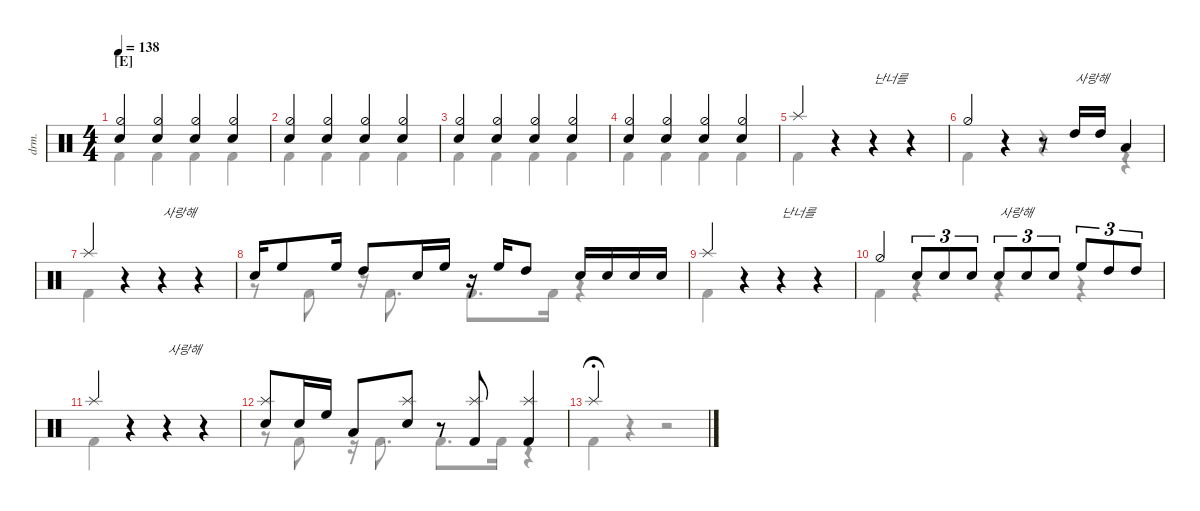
\defaultSystemsLayout 4
\hideDynamics
\bracketExtendMode nobrackets
\track ("Drumkit" "drm.") {instrument percussion}
\staff {score}
\articulation defaults
\voice
\ts (4 4)
\section ("E" "")
\tempo 138
\clef neutral
\ks c
("Snare (hit) 2" "Hi-Hat (half)").4{dy mf} ("Snare (hit) 2" "Hi-Hat (half)").4 ("Snare (hit) 2" "Hi-Hat (half)").4 ("Snare (hit) 2" "Hi-Hat (half)").4 |
("Snare (hit) 2" "Hi-Hat (half)").4 ("Snare (hit) 2" "Hi-Hat (half)").4 ("Snare (hit) 2" "Hi-Hat (half)").4 ("Snare (hit) 2" "Hi-Hat (half)").4 |
("Snare (hit) 2" "Hi-Hat (half)").4 ("Snare (hit) 2" "Hi-Hat (half)").4 ("Snare (hit) 2" "Hi-Hat (half)").4 ("Snare (hit) 2" "Hi-Hat (half)").4 |
("Snare (hit) 2" "Hi-Hat (half)").4 ("Snare (hit) 2" "Hi-Hat (half)").4 ("Snare (hit) 2" "Hi-Hat (half)").4 ("Snare (hit) 2" "Hi-Hat (half)").4 |
"Splash (hit)".4 r.4 r.4{txt "난너를"} r.4 |
"Hi-Hat (half)".4 r.4 r.8 "High Tom (hit)".16{txt "사랑해"} "High Tom (hit)".16 "Low Tom (hit)".4 |
"Splash (hit)".4 r.4 r.4{txt "사랑해"} r.4 |
"Snare (hit) 2".16 "High Floor Tom (hit)".8 "High Floor Tom (hit)".16 "High Tom (hit)".8 "Snare (hit) 2".16 "High Floor Tom (hit)".16 r.16 "High Floor Tom (hit)".16 "High Tom (hit)".8 "Snare (hit) 2".16 "Snare (hit) 2".16 "Snare (hit) 2".16 "Snare (hit) 2".16 |
"Splash (hit)".4 r.4 r.4{txt "난너를"} r.4 |
"Hi-Hat (half)".4 "Snare (hit) 2".8{tu (3 2)} "Snare (hit) 2".8{tu (3 2)} "Snare (hit) 2".8{tu (3 2)} "Snare (hit) 2".8{tu (3 2) txt "사랑해"} "Snare (hit) 2".8{tu (3 2)} "Snare (hit) 2".8{tu (3 2)} "High Floor Tom (hit)".8{tu (3 2)} "High Tom (hit)".8{tu (3 2)} "High Tom (hit)".8{tu (3 2)} |
"Splash (hit)".4 r.4 r.4{txt "사랑해"} r.4 |
("Splash (hit)" "Snare (hit) 2").8 "Snare (hit) 2".16 "High Floor Tom (hit)".16 "Low Tom (hit)".8 ("Snare (hit) 2" "Splash (hit)").8 r.8 ("Splash (hit)" "Kick (hit) 2").8 ("Splash (hit)" "Kick (hit) 2").4 |
"Splash (hit)".4{fermata (medium 0.5)}
\voice
\clef neutral
\ottava regular
\simile none
\ks c
|
|
|
|
|
|
|
|
|
|
|
|
\voice
\clef neutral
\ottava regular
\simile none
\ks c "Kick (hit) 2".4{dy mf} "Kick (hit) 2".4 "Kick (hit) 2".4 "Kick (hit) 2".4
|
"Kick (hit) 2".4 "Kick (hit) 2".4 "Kick (hit) 2".4 "Kick (hit) 2".4 |
"Kick (hit) 2".4 "Kick (hit) 2".4 "Kick (hit) 2".4 "Kick (hit) 2".4 |
"Kick (hit) 2".4 "Kick (hit) 2".4 "Kick (hit) 2".4 "Kick (hit) 2".4 |
"Kick (hit) 2".4 r.4 r.4 r.4 |
"Kick (hit) 2".4 r.4 r.4 r.4 |
"Kick (hit) 2".4 r.4 r.4 r.4 |
r.8 "Kick (hit) 2".8 r.16 "Kick (hit) 2".8{d} "Kick (hit) 2".8{d} "Kick (hit) 2".16 r.4 |
"Kick (hit) 2".4 r.4 r.4 r.4 |
"Kick (hit) 2".4 r.4 r.4 r.4 |
"Kick (hit) 2".4 r.4 r.4 r.4 |
r.8 "Kick (hit) 2".8 r.16 "Kick (hit) 2".8{d} "Kick (hit) 2".8{d} "Kick (hit) 2".16 r.4 |
"Kick (hit) 2".4{fermata (medium 0.5)} r.4 r.2
